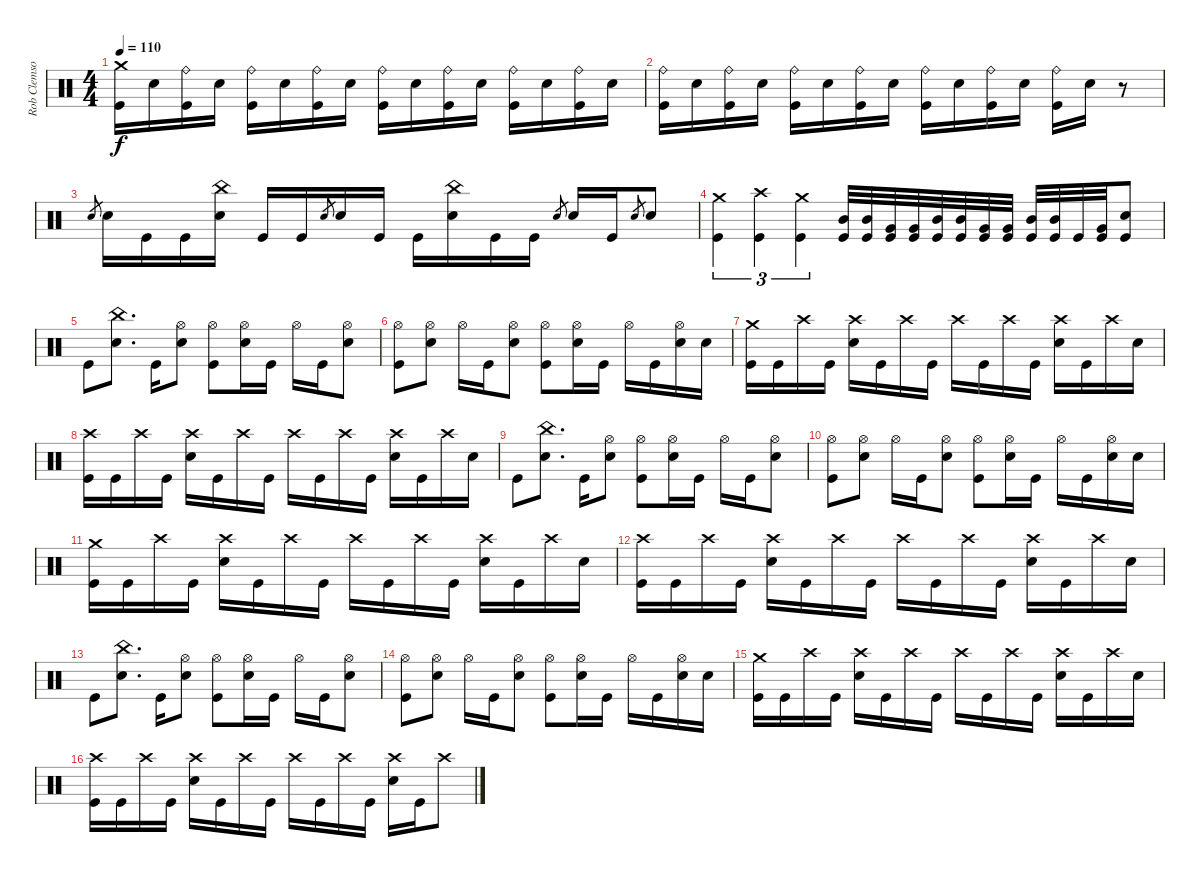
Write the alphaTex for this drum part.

\track ("Rob Clemson" "Rob Clemso") {instrument percussion}
\staff {score}
\articulation defaults
\ts (4 4)
\tempo 110
\clef neutral
\ks c
("Crash medium (hit)" "Kick (hit)").16{dy f} "Electric Snare (hit)".16 ("Ride (bell)" "Kick (hit)").16 "Electric Snare (hit)".16 ("Ride (bell)" "Kick (hit)").16 "Electric Snare (hit)".16 ("Ride (bell)" "Kick (hit)").16 "Electric Snare (hit)".16 ("Ride (bell)" "Kick (hit)").16 "Electric Snare (hit)".16 ("Ride (bell)" "Kick (hit)").16 "Electric Snare (hit)".16 ("Ride (bell)" "Kick (hit)").16 "Electric Snare (hit)".16 ("Ride (bell)" "Kick (hit)").16 "Electric Snare (hit)".16 |
("Ride (bell)" "Kick (hit)").16 "Electric Snare (hit)".16 ("Ride (bell)" "Kick (hit)").16 "Electric Snare (hit)".16 ("Ride (bell)" "Kick (hit)").16 "Electric Snare (hit)".16 ("Ride (bell)" "Kick (hit)").16 "Electric Snare (hit)".16 ("Ride (bell)" "Kick (hit)").16 "Electric Snare (hit)".16 ("Ride (bell)" "Kick (hit)").16 "Electric Snare (hit)".16 ("Ride (bell)" "Kick (hit)").16 "Electric Snare (hit)".16 r.8 |
"Electric Snare (hit)".8{gr} "Electric Snare (hit)".16 "Kick (hit)".16 "Kick (hit)".16 ("Electric Snare (hit)" "China (hit)").16 "Kick (hit)".16 "Kick (hit)".16 "Electric Snare (hit)".8{gr} "Electric Snare (hit)".16 "Kick (hit)".16 "Kick (hit)".16 ("Electric Snare (hit)" "China (hit)").16 "Kick (hit)".16 "Kick (hit)".16 "Electric Snare (hit)".8{gr} "Electric Snare (hit)".16 "Kick (hit)".16 "Electric Snare (hit)".8{gr} "Electric Snare (hit)".8 |
("Crash medium (hit)" "Kick (hit)").4{tu (3 2)} ("Crash high (hit)" "Kick (hit)").4{tu (3 2)} ("Crash medium (hit)" "Kick (hit)").4{tu (3 2)} ("Mid Tom (hit)" "Kick (hit)").32 ("Mid Tom (hit)" "Kick (hit)").32 ("Very Low Tom (hit)" "Kick (hit)").32 ("Very Low Tom (hit)" "Kick (hit)").32 ("Mid Tom (hit)" "Kick (hit)").32 ("Mid Tom (hit)" "Kick (hit)").32 ("Very Low Tom (hit)" "Kick (hit)").32 ("Very Low Tom (hit)" "Kick (hit)").32 ("Mid Tom (hit)" "Kick (hit)").32 ("Mid Tom (hit)" "Kick (hit)").32 "Kick (hit)".32 ("Very Low Tom (hit)" "Kick (hit)").32 ("Electric Snare (hit)" "Kick (hit)").8 |
"Kick (hit)".8 ("Electric Snare (hit)" "China (hit)").8{d} "Kick (hit)".16 ("Hi-Hat (open)" "Electric Snare (hit)").8 ("Hi-Hat (open)" "Kick (hit)").8 ("Hi-Hat (open)" "Electric Snare (hit)").16 "Kick (hit)".16 "Hi-Hat (open)".16 "Kick (hit)".16 ("Hi-Hat (open)" "Electric Snare (hit)").8 |
("Hi-Hat (open)" "Kick (hit)").8 ("Hi-Hat (open)" "Electric Snare (hit)").8 "Hi-Hat (open)".16 "Kick (hit)".16 ("Hi-Hat (open)" "Electric Snare (hit)").8 ("Hi-Hat (open)" "Kick (hit)").8 ("Hi-Hat (open)" "Electric Snare (hit)").16 "Kick (hit)".16 "Hi-Hat (open)".16 "Kick (hit)".16 ("Hi-Hat (open)" "Electric Snare (hit)").16 "Electric Snare (hit)".16 |
("Crash medium (hit)" "Kick (hit)").16 "Kick (hit)".16 "Crash high (hit)".16 "Kick (hit)".16 ("Crash high (hit)" "Electric Snare (hit)").16 "Kick (hit)".16 "Crash high (hit)".16 "Kick (hit)".16 "Crash high (hit)".16 "Kick (hit)".16 "Crash high (hit)".16 "Kick (hit)".16 ("Crash high (hit)" "Electric Snare (hit)").16 "Kick (hit)".16 "Crash high (hit)".16 "Electric Snare (hit)".16 |
("Crash high (hit)" "Kick (hit)").16 "Kick (hit)".16 "Crash high (hit)".16 "Kick (hit)".16 ("Crash high (hit)" "Electric Snare (hit)").16 "Kick (hit)".16 "Crash high (hit)".16 "Kick (hit)".16 "Crash high (hit)".16 "Kick (hit)".16 "Crash high (hit)".16 "Kick (hit)".16 ("Crash high (hit)" "Electric Snare (hit)").16 "Kick (hit)".16 "Crash high (hit)".16 "Electric Snare (hit)".16 |
"Kick (hit)".8 ("Electric Snare (hit)" "China (hit)").8{d} "Kick (hit)".16 ("Hi-Hat (open)" "Electric Snare (hit)").8 ("Hi-Hat (open)" "Kick (hit)").8 ("Hi-Hat (open)" "Electric Snare (hit)").16 "Kick (hit)".16 "Hi-Hat (open)".16 "Kick (hit)".16 ("Hi-Hat (open)" "Electric Snare (hit)").8 |
("Hi-Hat (open)" "Kick (hit)").8 ("Hi-Hat (open)" "Electric Snare (hit)").8 "Hi-Hat (open)".16 "Kick (hit)".16 ("Hi-Hat (open)" "Electric Snare (hit)").8 ("Hi-Hat (open)" "Kick (hit)").8 ("Hi-Hat (open)" "Electric Snare (hit)").16 "Kick (hit)".16 "Hi-Hat (open)".16 "Kick (hit)".16 ("Hi-Hat (open)" "Electric Snare (hit)").16 "Electric Snare (hit)".16 |
("Crash medium (hit)" "Kick (hit)").16 "Kick (hit)".16 "Crash high (hit)".16 "Kick (hit)".16 ("Crash high (hit)" "Electric Snare (hit)").16 "Kick (hit)".16 "Crash high (hit)".16 "Kick (hit)".16 "Crash high (hit)".16 "Kick (hit)".16 "Crash high (hit)".16 "Kick (hit)".16 ("Crash high (hit)" "Electric Snare (hit)").16 "Kick (hit)".16 "Crash high (hit)".16 "Electric Snare (hit)".16 |
("Crash high (hit)" "Kick (hit)").16 "Kick (hit)".16 "Crash high (hit)".16 "Kick (hit)".16 ("Crash high (hit)" "Electric Snare (hit)").16 "Kick (hit)".16 "Crash high (hit)".16 "Kick (hit)".16 "Crash high (hit)".16 "Kick (hit)".16 "Crash high (hit)".16 "Kick (hit)".16 ("Crash high (hit)" "Electric Snare (hit)").16 "Kick (hit)".16 "Crash high (hit)".16 "Electric Snare (hit)".16 |
"Kick (hit)".8 ("Electric Snare (hit)" "China (hit)").8{d} "Kick (hit)".16 ("Hi-Hat (open)" "Electric Snare (hit)").8 ("Hi-Hat (open)" "Kick (hit)").8 ("Hi-Hat (open)" "Electric Snare (hit)").16 "Kick (hit)".16 "Hi-Hat (open)".16 "Kick (hit)".16 ("Hi-Hat (open)" "Electric Snare (hit)").8 |
("Hi-Hat (open)" "Kick (hit)").8 ("Hi-Hat (open)" "Electric Snare (hit)").8 "Hi-Hat (open)".16 "Kick (hit)".16 ("Hi-Hat (open)" "Electric Snare (hit)").8 ("Hi-Hat (open)" "Kick (hit)").8 ("Hi-Hat (open)" "Electric Snare (hit)").16 "Kick (hit)".16 "Hi-Hat (open)".16 "Kick (hit)".16 ("Hi-Hat (open)" "Electric Snare (hit)").16 "Electric Snare (hit)".16 |
("Crash medium (hit)" "Kick (hit)").16 "Kick (hit)".16 "Crash high (hit)".16 "Kick (hit)".16 ("Crash high (hit)" "Electric Snare (hit)").16 "Kick (hit)".16 "Crash high (hit)".16 "Kick (hit)".16 "Crash high (hit)".16 "Kick (hit)".16 "Crash high (hit)".16 "Kick (hit)".16 ("Crash high (hit)" "Electric Snare (hit)").16 "Kick (hit)".16 "Crash high (hit)".16 "Electric Snare (hit)".16 |
("Crash high (hit)" "Kick (hit)").16 "Kick (hit)".16 "Crash high (hit)".16 "Kick (hit)".16 ("Crash high (hit)" "Electric Snare (hit)").16 "Kick (hit)".16 "Crash high (hit)".16 "Kick (hit)".16 "Crash high (hit)".16 "Kick (hit)".16 "Crash high (hit)".16 "Kick (hit)".16 ("Crash high (hit)" "Electric Snare (hit)").16 "Kick (hit)".16 "Crash high (hit)".8
